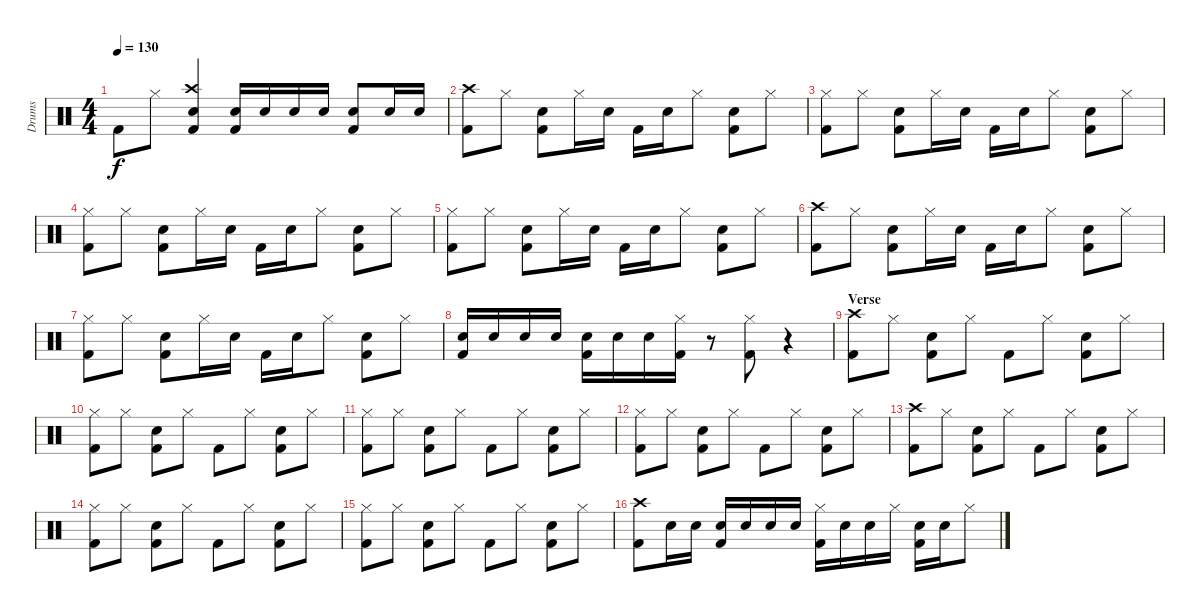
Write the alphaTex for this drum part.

\track ("Drums" "Drums") {instrument percussion}
\staff {score}
\articulation defaults
\ts (4 4)
\tempo 130
\clef neutral
\ks c "Kick (hit) 2".8{dy f} "Hi-Hat (closed)".8
("Crash high (hit)" "Snare (hit) 2" "Kick (hit) 2").4 ("Snare (hit) 2" "Kick (hit) 2").16 "Snare (hit) 2".16 "Snare (hit) 2".16 "Snare (hit) 2".16 ("Snare (hit) 2" "Kick (hit) 2").8 "Snare (hit) 2".16 "Snare (hit) 2".16 |
("Crash high (hit)" "Kick (hit) 2").8 "Hi-Hat (closed)".8 ("Snare (hit) 2" "Kick (hit) 2").8 "Hi-Hat (closed)".16 "Snare (hit) 2".16 "Kick (hit) 2".16 "Snare (hit) 2".16 "Hi-Hat (closed)".8 ("Snare (hit) 2" "Kick (hit) 2").8 "Hi-Hat (closed)".8 |
("Hi-Hat (closed)" "Kick (hit) 2").8 "Hi-Hat (closed)".8 ("Snare (hit) 2" "Kick (hit) 2").8 "Hi-Hat (closed)".16 "Snare (hit) 2".16 "Kick (hit) 2".16 "Snare (hit) 2".16 "Hi-Hat (closed)".8 ("Snare (hit) 2" "Kick (hit) 2").8 "Hi-Hat (closed)".8 |
("Hi-Hat (closed)" "Kick (hit) 2").8 "Hi-Hat (closed)".8 ("Snare (hit) 2" "Kick (hit) 2").8 "Hi-Hat (closed)".16 "Snare (hit) 2".16 "Kick (hit) 2".16 "Snare (hit) 2".16 "Hi-Hat (closed)".8 ("Snare (hit) 2" "Kick (hit) 2").8 "Hi-Hat (closed)".8 |
("Hi-Hat (closed)" "Kick (hit) 2").8 "Hi-Hat (closed)".8 ("Snare (hit) 2" "Kick (hit) 2").8 "Hi-Hat (closed)".16 "Snare (hit) 2".16 "Kick (hit) 2".16 "Snare (hit) 2".16 "Hi-Hat (closed)".8 ("Snare (hit) 2" "Kick (hit) 2").8 "Hi-Hat (closed)".8 |
("Crash high (hit)" "Kick (hit) 2").8 "Hi-Hat (closed)".8 ("Snare (hit) 2" "Kick (hit) 2").8 "Hi-Hat (closed)".16 "Snare (hit) 2".16 "Kick (hit) 2".16 "Snare (hit) 2".16 "Hi-Hat (closed)".8 ("Snare (hit) 2" "Kick (hit) 2").8 "Hi-Hat (closed)".8 |
("Hi-Hat (closed)" "Kick (hit) 2").8 "Hi-Hat (closed)".8 ("Snare (hit) 2" "Kick (hit) 2").8 "Hi-Hat (closed)".16 "Snare (hit) 2".16 "Kick (hit) 2".16 "Snare (hit) 2".16 "Hi-Hat (closed)".8 ("Snare (hit) 2" "Kick (hit) 2").8 "Hi-Hat (closed)".8 |
("Snare (hit) 2" "Kick (hit) 2").16 "Snare (hit) 2".16 "Snare (hit) 2".16 "Snare (hit) 2".16 ("Snare (hit) 2" "Kick (hit) 2").16 "Snare (hit) 2".16 "Snare (hit) 2".16 ("Hi-Hat (closed)" "Kick (hit) 2").16 r.8 ("Hi-Hat (closed)" "Kick (hit) 2").8 r.4 |
\section ("" "Verse")
("Crash high (hit)" "Kick (hit) 2").8 "Hi-Hat (closed)".8 ("Snare (hit) 2" "Kick (hit) 2").8 "Hi-Hat (closed)".8 "Kick (hit) 2".8 "Hi-Hat (closed)".8 ("Snare (hit) 2" "Kick (hit) 2").8 "Hi-Hat (closed)".8 |
("Hi-Hat (closed)" "Kick (hit) 2").8 "Hi-Hat (closed)".8 ("Snare (hit) 2" "Kick (hit) 2").8 "Hi-Hat (closed)".8 "Kick (hit) 2".8 "Hi-Hat (closed)".8 ("Snare (hit) 2" "Kick (hit) 2").8 "Hi-Hat (closed)".8 |
("Hi-Hat (closed)" "Kick (hit) 2").8 "Hi-Hat (closed)".8 ("Snare (hit) 2" "Kick (hit) 2").8 "Hi-Hat (closed)".8 "Kick (hit) 2".8 "Hi-Hat (closed)".8 ("Snare (hit) 2" "Kick (hit) 2").8 "Hi-Hat (closed)".8 |
("Hi-Hat (closed)" "Kick (hit) 2").8 "Hi-Hat (closed)".8 ("Snare (hit) 2" "Kick (hit) 2").8 "Hi-Hat (closed)".8 "Kick (hit) 2".8 "Hi-Hat (closed)".8 ("Snare (hit) 2" "Kick (hit) 2").8 "Hi-Hat (closed)".8 |
("Crash high (hit)" "Kick (hit) 2").8 "Hi-Hat (closed)".8 ("Snare (hit) 2" "Kick (hit) 2").8 "Hi-Hat (closed)".8 "Kick (hit) 2".8 "Hi-Hat (closed)".8 ("Snare (hit) 2" "Kick (hit) 2").8 "Hi-Hat (closed)".8 |
("Hi-Hat (closed)" "Kick (hit) 2").8 "Hi-Hat (closed)".8 ("Snare (hit) 2" "Kick (hit) 2").8 "Hi-Hat (closed)".8 "Kick (hit) 2".8 "Hi-Hat (closed)".8 ("Snare (hit) 2" "Kick (hit) 2").8 "Hi-Hat (closed)".8 |
("Hi-Hat (closed)" "Kick (hit) 2").8 "Hi-Hat (closed)".8 ("Snare (hit) 2" "Kick (hit) 2").8 "Hi-Hat (closed)".8 "Kick (hit) 2".8 "Hi-Hat (closed)".8 ("Snare (hit) 2" "Kick (hit) 2").8 "Hi-Hat (closed)".8 |
("Crash high (hit)" "Kick (hit) 2").8 "Snare (hit) 2".16 "Snare (hit) 2".16 ("Snare (hit) 2" "Kick (hit) 2").16 "Snare (hit) 2".16 "Snare (hit) 2".16 "Snare (hit) 2".16 ("Hi-Hat (closed)" "Kick (hit) 2").16 "Snare (hit) 2".16 "Snare (hit) 2".16 "Hi-Hat (closed)".16 ("Snare (hit) 2" "Kick (hit) 2").16 "Snare (hit) 2".16 "Hi-Hat (closed)".8
